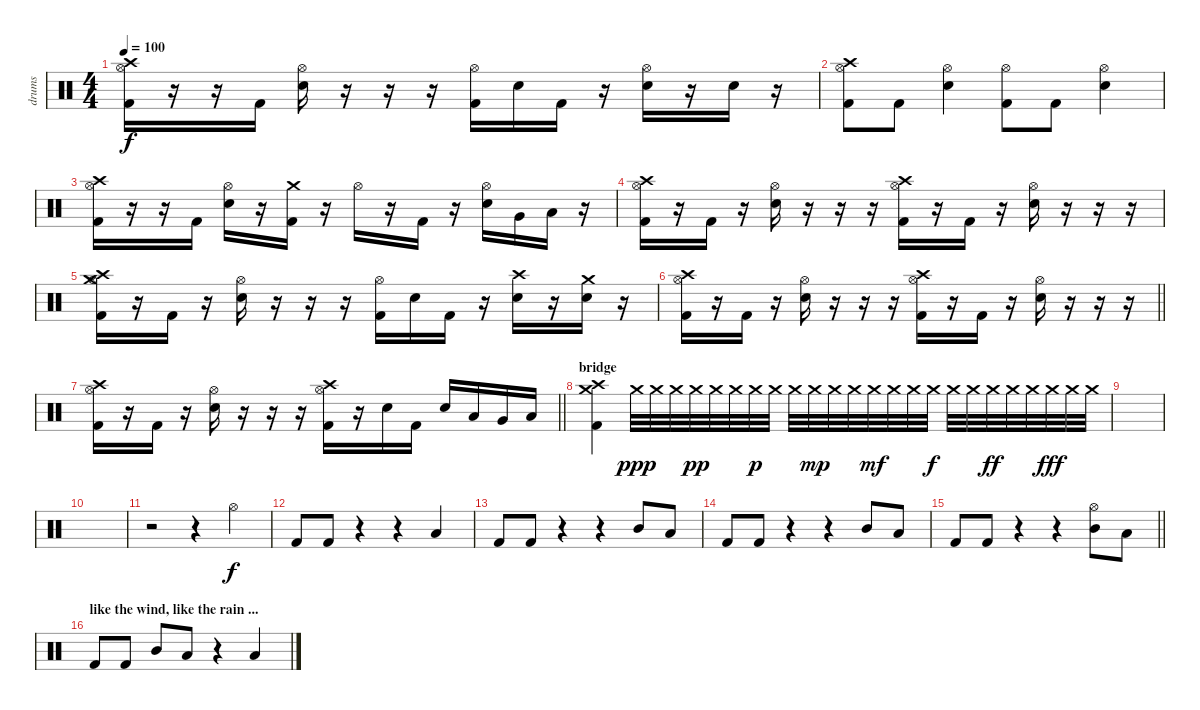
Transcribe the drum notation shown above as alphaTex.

\track ("drums" "drums") {instrument percussion}
\staff {score}
\articulation defaults
\ts (4 4)
\tempo 100
\clef neutral
\ks c
("Crash high (hit)" "Hi-Hat (open)" "Kick (hit) 2").16{dy f} r.16 r.16 "Kick (hit) 2".16 ("Hi-Hat (open)" "Electric Snare (hit)").16 r.16 r.16 r.16 ("Hi-Hat (open)" "Kick (hit) 2").16 "Electric Snare (hit)".16 "Kick (hit) 2".16 r.16 ("Hi-Hat (open)" "Electric Snare (hit)").16 r.16 "Electric Snare (hit)".16 r.16 |
("Hi-Hat (open)" "Crash high (hit)" "Kick (hit) 2").8 "Kick (hit) 2".8 ("Hi-Hat (open)" "Electric Snare (hit)").4 ("Hi-Hat (open)" "Kick (hit) 2").8 "Kick (hit) 2".8 ("Hi-Hat (open)" "Electric Snare (hit)").4 |
("Crash high (hit)" "Hi-Hat (open)" "Kick (hit) 2").16 r.16 r.16 "Kick (hit) 2".16 ("Hi-Hat (open)" "Electric Snare (hit)").16 r.16 ("Crash medium (hit)" "Kick (hit) 2").16 r.16 "Hi-Hat (open)".16 r.16 "Kick (hit) 2".16 r.16 ("Hi-Hat (open)" "Electric Snare (hit)").16 "Very Low Tom (hit)".16 "Low Floor Tom (hit)".16 r.16 |
("Crash high (hit)" "Hi-Hat (open)" "Kick (hit) 2").16 r.16 "Kick (hit) 2".16 r.16 ("Hi-Hat (open)" "Electric Snare (hit)").16 r.16 r.16 r.16 ("Crash high (hit)" "Hi-Hat (open)" "Kick (hit) 2").16 r.16 "Kick (hit) 2".16 r.16 ("Hi-Hat (open)" "Electric Snare (hit)").16 r.16 r.16 r.16 |
("Crash medium (hit)" "Crash high (hit)" "Hi-Hat (open)" "Kick (hit) 2").16 r.16 "Kick (hit) 2".16 r.16 ("Hi-Hat (open)" "Electric Snare (hit)").16 r.16 r.16 r.16 ("Hi-Hat (open)" "Kick (hit) 2").16 "Electric Snare (hit)".16 "Kick (hit) 2".16 r.16 ("Crash high (hit)" "Electric Snare (hit)").16 r.16 ("Crash medium (hit)" "Electric Snare (hit)").16 r.16 |
\barLineRight lightlight
("Crash high (hit)" "Hi-Hat (open)" "Kick (hit) 2").16 r.16 "Kick (hit) 2".16 r.16 ("Hi-Hat (open)" "Electric Snare (hit)").16 r.16 r.16 r.16 ("Crash high (hit)" "Hi-Hat (open)" "Kick (hit) 2").16 r.16 "Kick (hit) 2".16 r.16 ("Hi-Hat (open)" "Electric Snare (hit)").16 r.16 r.16 r.16 |
\barLineRight lightlight
("Crash high (hit)" "Hi-Hat (open)" "Kick (hit) 2").16 r.16 "Kick (hit) 2".16 r.16 ("Hi-Hat (open)" "Electric Snare (hit)").16 r.16 r.16 r.16 ("Crash high (hit)" "Hi-Hat (open)" "Kick (hit) 2").16 r.16 "Electric Snare (hit)".16 "Kick (hit) 2".16 "Electric Snare (hit)".16 "Low Tom (hit)".16 "Very Low Tom (hit)".16 "Low Floor Tom (hit)".16 |
\section ("" "bridge")
("Crash medium (hit)" "Crash high (hit)" "Kick (hit) 2").4 "Crash medium (hit)".32{dy ppp} "Crash medium (hit)".32 "Crash medium (hit)".32 "Crash medium (hit)".32{dy pp} "Crash medium (hit)".32 "Crash medium (hit)".32 "Crash medium (hit)".32{dy p} "Crash medium (hit)".32 "Crash medium (hit)".32 "Crash medium (hit)".32{dy mp} "Crash medium (hit)".32 "Crash medium (hit)".32 "Crash medium (hit)".32{dy mf} "Crash medium (hit)".32 "Crash medium (hit)".32 "Crash medium (hit)".32{dy f} "Crash medium (hit)".32 "Crash medium (hit)".32 "Crash medium (hit)".32{dy ff} "Crash medium (hit)".32 "Crash medium (hit)".32 "Crash medium (hit)".32{dy fff} "Crash medium (hit)".32 "Crash medium (hit)".32 |
|
|
r.2 r.4 "Hi-Hat (open)".4{dy f} |
"Kick (hit) 2".8 "Kick (hit) 2".8 r.4 r.4 "Low Tom (hit)".4 |
"Kick (hit) 2".8 "Kick (hit) 2".8 r.4 r.4 "Mid Tom (hit)".8 "Low Tom (hit)".8 |
"Kick (hit) 2".8 "Kick (hit) 2".8 r.4 r.4 "Mid Tom (hit)".8 "Low Tom (hit)".8 |
\barLineRight lightlight "Kick (hit) 2".8 "Kick (hit) 2".8
r.4 r.4 ("Hi-Hat (open)" "Mid Tom (hit)").8 "Low Tom (hit)".8 |
\section ("" "like the wind, like the rain ...")
"Kick (hit) 2".8 "Kick (hit) 2".8 "Mid Tom (hit)".8 "Low Tom (hit)".8 r.4 "Low Tom (hit)".4
